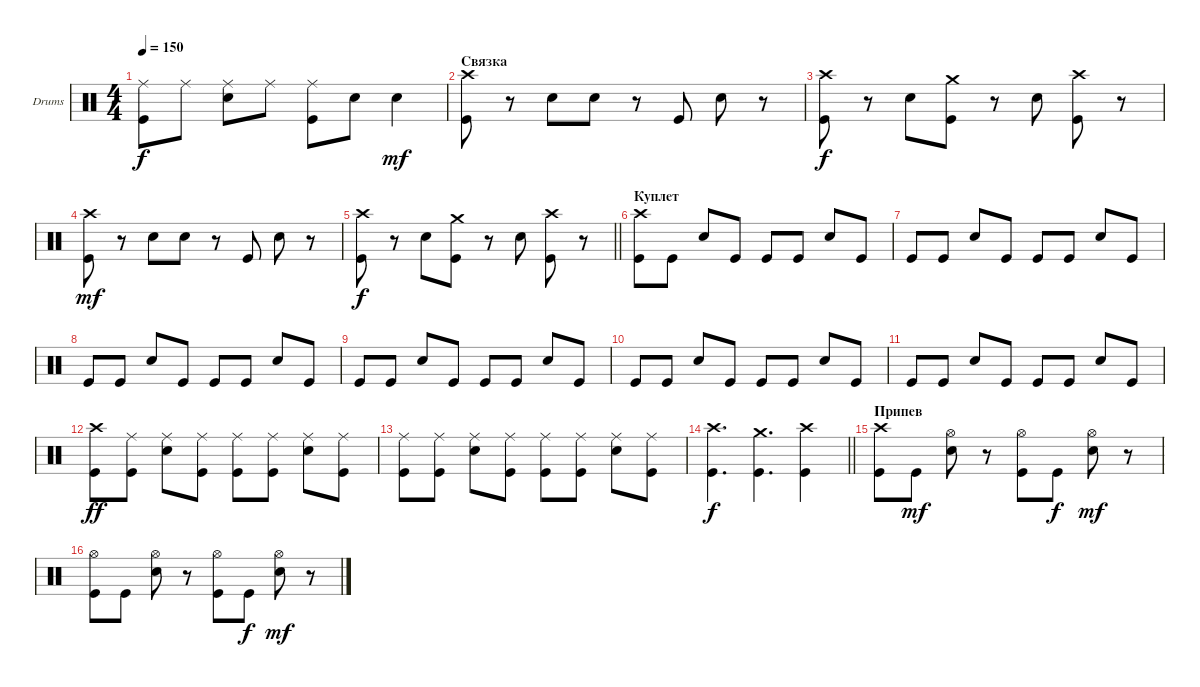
\bracketExtendMode groupsimilarinstruments
\firstSystemTrackNameOrientation horizontal
\otherSystemsTrackNameOrientation horizontal
\track ("Drumkit" "Drums") {instrument percussion}
\staff {score}
\articulation defaults
\ts (4 4)
\tempo 150
\clef neutral
\ks c
("Ride (middle)" "Kick (hit)").8{dy f} "Ride (middle)".8 ("Ride (middle)" "Snare (hit) 2").8 "Ride (middle)".8 ("Ride (middle)" "Kick (hit)").8 "Snare (hit) 2".8 "Snare (hit) 2".4{dy mf} |
\section ("" "Связка")
("Crash high (hit)" "Kick (hit)").8 r.8 "Snare (hit) 2".8 "Snare (hit) 2".8 r.8 "Kick (hit)".8 "Snare (hit) 2".8 r.8 |
("Crash high (hit)" "Kick (hit)").8{dy f} r.8 "Snare (hit) 2".8 ("Crash medium (hit)" "Kick (hit)").8 r.8 "Snare (hit) 2".8 ("Crash high (hit)" "Kick (hit)").8 r.8 |
("Crash high (hit)" "Kick (hit)").8{dy mf} r.8 "Snare (hit) 2".8 "Snare (hit) 2".8 r.8 "Kick (hit)".8 "Snare (hit) 2".8 r.8 |
\barLineRight lightlight
("Crash high (hit)" "Kick (hit)").8{dy f} r.8 "Snare (hit) 2".8 ("Crash medium (hit)" "Kick (hit)").8 r.8 "Snare (hit) 2".8 ("Crash high (hit)" "Kick (hit)").8 r.8 |
\section ("" "Куплет")
("Crash high (hit)" "Kick (hit)").8 "Kick (hit)".8 "Snare (hit) 2".8 "Kick (hit)".8 "Kick (hit)".8 "Kick (hit)".8 "Snare (hit) 2".8 "Kick (hit)".8 |
"Kick (hit)".8 "Kick (hit)".8 "Snare (hit) 2".8 "Kick (hit)".8 "Kick (hit)".8 "Kick (hit)".8 "Snare (hit) 2".8 "Kick (hit)".8 |
"Kick (hit)".8 "Kick (hit)".8 "Snare (hit) 2".8 "Kick (hit)".8 "Kick (hit)".8 "Kick (hit)".8 "Snare (hit) 2".8 "Kick (hit)".8 |
"Kick (hit)".8 "Kick (hit)".8 "Snare (hit) 2".8 "Kick (hit)".8 "Kick (hit)".8 "Kick (hit)".8 "Snare (hit) 2".8 "Kick (hit)".8 |
"Kick (hit)".8 "Kick (hit)".8 "Snare (hit) 2".8 "Kick (hit)".8 "Kick (hit)".8 "Kick (hit)".8 "Snare (hit) 2".8 "Kick (hit)".8 |
"Kick (hit)".8 "Kick (hit)".8 "Snare (hit) 2".8 "Kick (hit)".8 "Kick (hit)".8 "Kick (hit)".8 "Snare (hit) 2".8 "Kick (hit)".8 |
("Crash high (hit)" "Kick (hit)").8{dy ff} ("Ride (middle)" "Kick (hit)").8 ("Ride (middle)" "Snare (hit) 2").8 ("Ride (middle)" "Kick (hit)").8 ("Ride (middle)" "Kick (hit)").8 ("Ride (middle)" "Kick (hit)").8 ("Ride (middle)" "Snare (hit) 2").8 ("Ride (middle)" "Kick (hit)").8 |
("Ride (middle)" "Kick (hit)").8 ("Ride (middle)" "Kick (hit)").8 ("Ride (middle)" "Snare (hit) 2").8 ("Ride (middle)" "Kick (hit)").8 ("Ride (middle)" "Kick (hit)").8 ("Ride (middle)" "Kick (hit)").8 ("Ride (middle)" "Snare (hit) 2").8 ("Ride (middle)" "Kick (hit)").8 |
\barLineRight lightlight
("Crash high (hit)" "Kick (hit)").4{d dy f} ("Crash medium (hit)" "Kick (hit)").4{d} ("Crash high (hit)" "Kick (hit)").4 |
\section ("" "Припев")
("Crash high (hit)" "Kick (hit)").8 "Kick (hit)".8{dy mf} ("Hi-Hat (open)" "Snare (hit) 2").8 r.8 ("Hi-Hat (open)" "Kick (hit)").8 "Kick (hit)".8{dy f} ("Hi-Hat (open)" "Snare (hit) 2").8{dy mf} r.8 |
("Hi-Hat (open)" "Kick (hit)").8 "Kick (hit)".8 ("Hi-Hat (open)" "Snare (hit) 2").8 r.8 ("Hi-Hat (open)" "Kick (hit)").8 "Kick (hit)".8{dy f} ("Hi-Hat (open)" "Snare (hit) 2").8{dy mf} r.8
